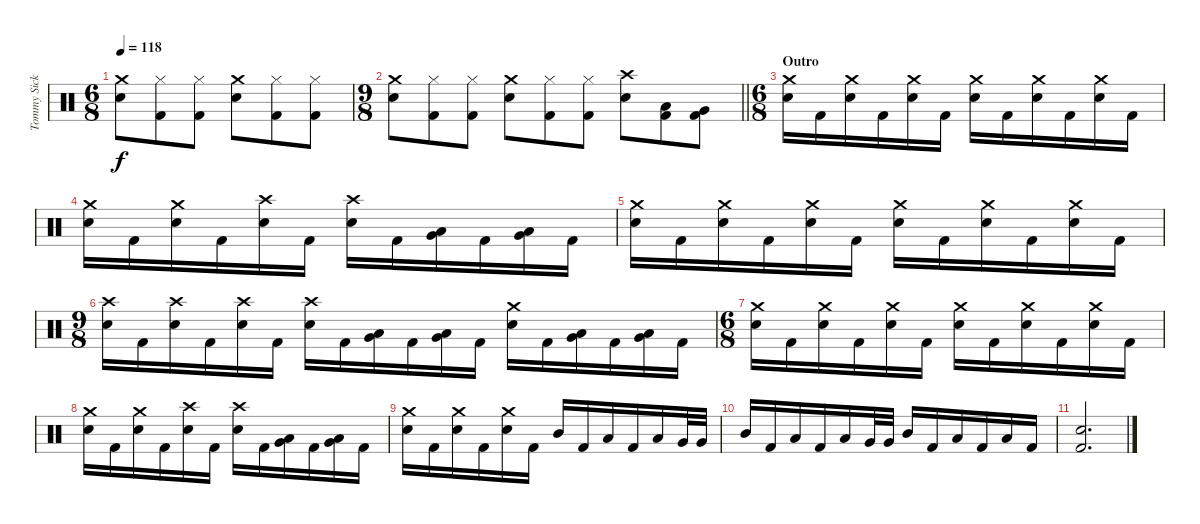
\track ("Tommy Sickles" "Tommy Sick") {instrument percussion}
\staff {score}
\articulation defaults
\ts (6 8)
\tempo 118
\clef neutral
\ks c
("Crash medium (hit)" "Electric Snare (hit)").8{dy f} ("Hi-Hat (closed)" "Kick (hit) 2").8 ("Hi-Hat (closed)" "Kick (hit) 2").8 ("Crash medium (hit)" "Electric Snare (hit)").8 ("Hi-Hat (closed)" "Kick (hit) 2").8 ("Hi-Hat (closed)" "Kick (hit) 2").8 |
\ts (9 8)
\barLineRight lightlight
("Crash medium (hit)" "Electric Snare (hit)").8 ("Hi-Hat (closed)" "Kick (hit) 2").8 ("Hi-Hat (closed)" "Kick (hit) 2").8 ("Crash medium (hit)" "Electric Snare (hit)").8 ("Hi-Hat (closed)" "Kick (hit) 2").8 ("Hi-Hat (closed)" "Kick (hit) 2").8 ("Crash high (hit)" "Electric Snare (hit)").8 ("Low Tom (hit)" "Kick (hit) 2").8 ("Very Low Tom (hit)" "Kick (hit) 2").8 |
\ts (6 8)
\section ("" "Outro")
("Crash medium (hit)" "Electric Snare (hit)").16 "Kick (hit) 2".16 ("Crash medium (hit)" "Electric Snare (hit)").16 "Kick (hit) 2".16 ("Crash medium (hit)" "Electric Snare (hit)").16 "Kick (hit) 2".16 ("Crash medium (hit)" "Electric Snare (hit)").16 "Kick (hit) 2".16 ("Crash medium (hit)" "Electric Snare (hit)").16 "Kick (hit) 2".16 ("Crash medium (hit)" "Electric Snare (hit)").16 "Kick (hit) 2".16 |
("Crash medium (hit)" "Electric Snare (hit)").16 "Kick (hit) 2".16 ("Crash medium (hit)" "Electric Snare (hit)").16 "Kick (hit) 2".16 ("Crash high (hit)" "Electric Snare (hit)").16 "Kick (hit) 2".16 ("Crash high (hit)" "Electric Snare (hit)").16 "Kick (hit) 2".16 ("Low Tom (hit)" "Very Low Tom (hit)").16 "Kick (hit) 2".16 ("Very Low Tom (hit)" "Low Floor Tom (hit)").16 "Kick (hit) 2".16 |
("Crash medium (hit)" "Electric Snare (hit)").16 "Kick (hit) 2".16 ("Crash medium (hit)" "Electric Snare (hit)").16 "Kick (hit) 2".16 ("Crash medium (hit)" "Electric Snare (hit)").16 "Kick (hit) 2".16 ("Crash medium (hit)" "Electric Snare (hit)").16 "Kick (hit) 2".16 ("Crash medium (hit)" "Electric Snare (hit)").16 "Kick (hit) 2".16 ("Crash medium (hit)" "Electric Snare (hit)").16 "Kick (hit) 2".16 |
\ts (9 8)
("Crash high (hit)" "Electric Snare (hit)").16 "Kick (hit) 2".16 ("Crash high (hit)" "Electric Snare (hit)").16 "Kick (hit) 2".16 ("Crash high (hit)" "Electric Snare (hit)").16 "Kick (hit) 2".16 ("Crash high (hit)" "Electric Snare (hit)").16 "Kick (hit) 2".16 ("Low Tom (hit)" "Very Low Tom (hit)").16 "Kick (hit) 2".16 ("Very Low Tom (hit)" "Low Floor Tom (hit)").16 "Kick (hit) 2".16 ("Crash medium (hit)" "Electric Snare (hit)").16 "Kick (hit) 2".16 ("Very Low Tom (hit)" "Low Tom (hit)").16 "Kick (hit) 2".16 ("Very Low Tom (hit)" "Low Tom (hit)").16 "Kick (hit) 2".16 |
\ts (6 8)
("Crash medium (hit)" "Electric Snare (hit)").16 "Kick (hit) 2".16 ("Crash medium (hit)" "Electric Snare (hit)").16 "Kick (hit) 2".16 ("Crash medium (hit)" "Electric Snare (hit)").16 "Kick (hit) 2".16 ("Crash medium (hit)" "Electric Snare (hit)").16 "Kick (hit) 2".16 ("Crash medium (hit)" "Electric Snare (hit)").16 "Kick (hit) 2".16 ("Crash medium (hit)" "Electric Snare (hit)").16 "Kick (hit) 2".16 |
("Crash medium (hit)" "Electric Snare (hit)").16 "Kick (hit) 2".16 ("Crash medium (hit)" "Electric Snare (hit)").16 "Kick (hit) 2".16 ("Crash high (hit)" "Electric Snare (hit)").16 "Kick (hit) 2".16 ("Crash high (hit)" "Electric Snare (hit)").16 "Kick (hit) 2".16 ("Low Tom (hit)" "Very Low Tom (hit)").16 "Kick (hit) 2".16 ("Very Low Tom (hit)" "Low Floor Tom (hit)").16 "Kick (hit) 2".16 |
("Crash medium (hit)" "Electric Snare (hit)").16 "Kick (hit) 2".16 ("Crash medium (hit)" "Electric Snare (hit)").16 "Kick (hit) 2".16 ("Crash medium (hit)" "Electric Snare (hit)").16 "Kick (hit) 2".16 "Mid Tom (hit)".16 "Kick (hit) 2".16 "Low Tom (hit)".16 "Kick (hit) 2".16 "Low Tom (hit)".16 "Very Low Tom (hit)".32 "Very Low Tom (hit)".32 |
"Mid Tom (hit)".16 "Kick (hit) 2".16 "Low Tom (hit)".16 "Kick (hit) 2".16 "Low Tom (hit)".16 "Very Low Tom (hit)".32 "Very Low Tom (hit)".32 "Mid Tom (hit)".16 "Kick (hit) 2".16 "Low Tom (hit)".16 "Kick (hit) 2".16 "Low Tom (hit)".16 "Kick (hit) 2".16 |
("Electric Snare (hit)" "Kick (hit) 2").2{d}
